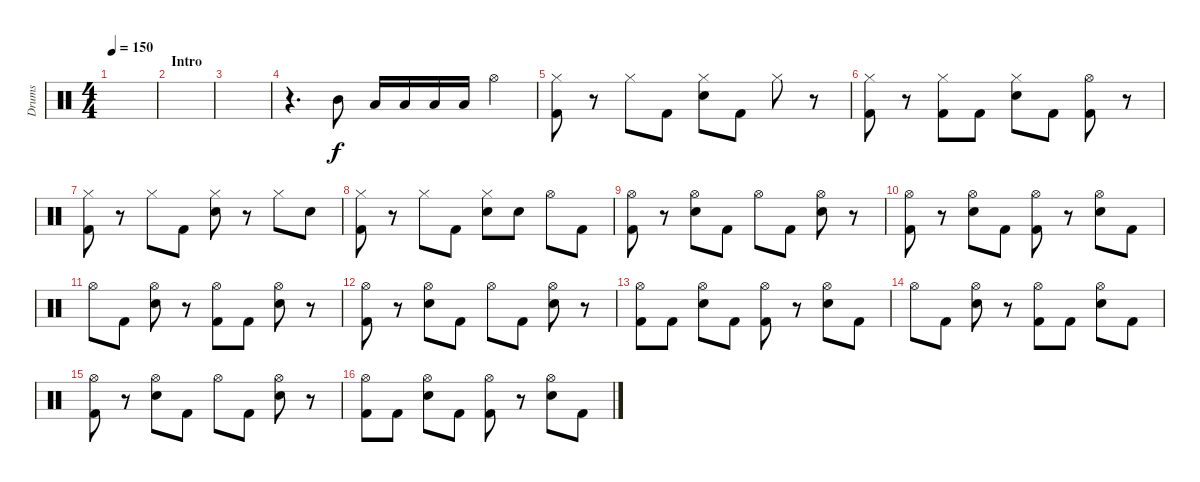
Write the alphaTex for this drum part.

\track ("Drums" "Drums") {instrument percussion}
\staff {score}
\articulation defaults
\ts (4 4)
\tempo 150
\clef neutral
\ks c
|
\section ("" "Intro")
|
|
r.4{d} "Mid Tom (hit)".8 "Low Floor Tom (hit)".16 "Low Floor Tom (hit)".16 "Low Floor Tom (hit)".16 "Low Floor Tom (hit)".16 "Hi-Hat (open)".4 |
("Hi-Hat (closed)" "Kick (hit) 2").8 r.8 "Hi-Hat (closed)".8 "Kick (hit) 2".8 ("Hi-Hat (closed)" "Electric Snare (hit)").8 "Kick (hit) 2".8 "Hi-Hat (closed)".8 r.8 |
("Hi-Hat (closed)" "Kick (hit) 2").8 r.8 ("Hi-Hat (closed)" "Kick (hit) 2").8 "Kick (hit) 2".8 ("Hi-Hat (closed)" "Electric Snare (hit)").8 "Kick (hit) 2".8 ("Hi-Hat (open)" "Kick (hit) 2").8 r.8 |
("Hi-Hat (closed)" "Kick (hit) 2").8 r.8 "Hi-Hat (closed)".8 "Kick (hit) 2".8 ("Hi-Hat (closed)" "Electric Snare (hit)").8 r.8 "Hi-Hat (closed)".8 "Electric Snare (hit)".8 |
("Hi-Hat (closed)" "Kick (hit) 2").8 r.8 "Hi-Hat (closed)".8 "Kick (hit) 2".8 ("Hi-Hat (closed)" "Electric Snare (hit)").8 "Electric Snare (hit)".8 "Hi-Hat (open)".8 "Kick (hit) 2".8 |
("Hi-Hat (open)" "Kick (hit) 2").8 r.8 ("Hi-Hat (open)" "Electric Snare (hit)").8 "Kick (hit) 2".8 "Hi-Hat (open)".8 "Kick (hit) 2".8 ("Hi-Hat (open)" "Electric Snare (hit)").8 r.8 |
("Hi-Hat (open)" "Kick (hit) 2").8 r.8 ("Hi-Hat (open)" "Electric Snare (hit)").8 "Kick (hit) 2".8 ("Hi-Hat (open)" "Kick (hit) 2").8 r.8 ("Hi-Hat (open)" "Electric Snare (hit)").8 "Kick (hit) 2".8 |
"Hi-Hat (open)".8 "Kick (hit) 2".8 ("Hi-Hat (open)" "Electric Snare (hit)").8 r.8 ("Hi-Hat (open)" "Kick (hit) 2").8 "Kick (hit) 2".8 ("Hi-Hat (open)" "Electric Snare (hit)").8 r.8 |
("Hi-Hat (open)" "Kick (hit) 2").8 r.8 ("Hi-Hat (open)" "Electric Snare (hit)").8 "Kick (hit) 2".8 "Hi-Hat (open)".8 "Kick (hit) 2".8 ("Hi-Hat (open)" "Electric Snare (hit)").8 r.8 |
("Hi-Hat (open)" "Kick (hit) 2").8 "Kick (hit) 2".8 ("Hi-Hat (open)" "Electric Snare (hit)").8 "Kick (hit) 2".8 ("Hi-Hat (open)" "Kick (hit) 2").8 r.8 ("Hi-Hat (open)" "Electric Snare (hit)").8 "Kick (hit) 2".8 |
"Hi-Hat (open)".8 "Kick (hit) 2".8 ("Hi-Hat (open)" "Electric Snare (hit)").8 r.8 ("Hi-Hat (open)" "Kick (hit) 2").8 "Kick (hit) 2".8 ("Hi-Hat (open)" "Electric Snare (hit)").8 "Kick (hit) 2".8 |
("Hi-Hat (open)" "Kick (hit) 2").8 r.8 ("Hi-Hat (open)" "Electric Snare (hit)").8 "Kick (hit) 2".8 "Hi-Hat (open)".8 "Kick (hit) 2".8 ("Hi-Hat (open)" "Electric Snare (hit)").8 r.8 |
("Hi-Hat (open)" "Kick (hit) 2").8 "Kick (hit) 2".8 ("Hi-Hat (open)" "Electric Snare (hit)").8 "Kick (hit) 2".8 ("Hi-Hat (open)" "Kick (hit) 2").8 r.8 ("Hi-Hat (open)" "Electric Snare (hit)").8 "Kick (hit) 2".8
